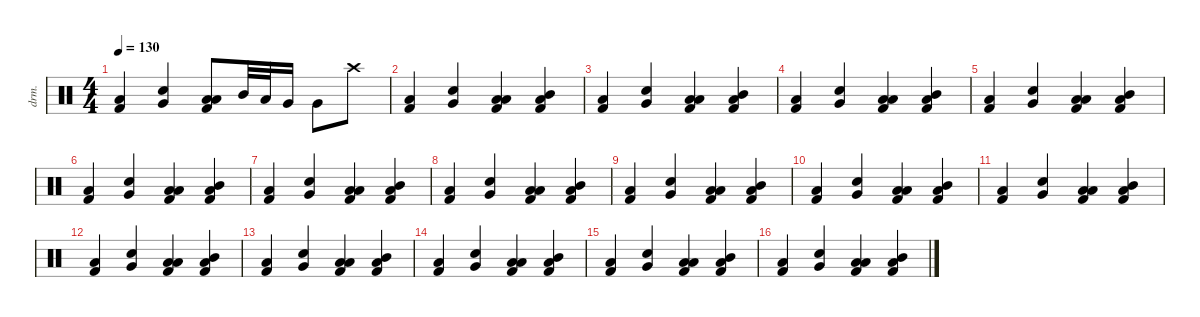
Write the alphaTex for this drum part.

\defaultSystemsLayout 4
\hideDynamics
\bracketExtendMode nobrackets
\otherSystemsTrackNameOrientation horizontal
\track ("Percussion" "drm.") {instrument percussion}
\staff {score}
\articulation defaults
\ts (4 4)
\tempo 130
\clef neutral
\ks c
("Kick (hit) 2" "Low Floor Tom (hit)").4{dy f} ("Very Low Tom (hit)" "Snare (hit) 2").4 ("Low Floor Tom (hit)" "Kick (hit) 2" "Low Tom (hit)").8 "Mid Tom (hit)".32 "Low Tom (hit)".32 "Very Low Tom (hit)".16 "Very Low Tom (hit)".8 "Crash high (hit)".8 |
("Kick (hit) 2" "Low Floor Tom (hit)").4 ("Very Low Tom (hit)" "Snare (hit) 2").4 ("Low Floor Tom (hit)" "Kick (hit) 2" "Low Tom (hit)").4 ("Low Tom (hit)" "Kick (hit) 2" "Mid Tom (hit)").4 |
("Kick (hit) 2" "Low Floor Tom (hit)").4 ("Very Low Tom (hit)" "Snare (hit) 2").4 ("Low Floor Tom (hit)" "Kick (hit) 2" "Low Tom (hit)").4 ("Low Tom (hit)" "Kick (hit) 2" "Mid Tom (hit)").4 |
("Kick (hit) 2" "Low Floor Tom (hit)").4 ("Very Low Tom (hit)" "Snare (hit) 2").4 ("Low Floor Tom (hit)" "Kick (hit) 2" "Low Tom (hit)").4 ("Low Tom (hit)" "Kick (hit) 2" "Mid Tom (hit)").4 |
("Kick (hit) 2" "Low Floor Tom (hit)").4 ("Very Low Tom (hit)" "Snare (hit) 2").4 ("Low Floor Tom (hit)" "Kick (hit) 2" "Low Tom (hit)").4 ("Low Tom (hit)" "Kick (hit) 2" "Mid Tom (hit)").4 |
("Kick (hit) 2" "Low Floor Tom (hit)").4 ("Very Low Tom (hit)" "Snare (hit) 2").4 ("Low Floor Tom (hit)" "Kick (hit) 2" "Low Tom (hit)").4 ("Low Tom (hit)" "Kick (hit) 2" "Mid Tom (hit)").4 |
("Kick (hit) 2" "Low Floor Tom (hit)").4 ("Very Low Tom (hit)" "Snare (hit) 2").4 ("Low Floor Tom (hit)" "Kick (hit) 2" "Low Tom (hit)").4 ("Low Tom (hit)" "Kick (hit) 2" "Mid Tom (hit)").4 |
("Kick (hit) 2" "Low Floor Tom (hit)").4 ("Very Low Tom (hit)" "Snare (hit) 2").4 ("Low Floor Tom (hit)" "Kick (hit) 2" "Low Tom (hit)").4 ("Low Tom (hit)" "Kick (hit) 2" "Mid Tom (hit)").4 |
("Kick (hit) 2" "Low Floor Tom (hit)").4 ("Very Low Tom (hit)" "Snare (hit) 2").4 ("Low Floor Tom (hit)" "Kick (hit) 2" "Low Tom (hit)").4 ("Low Tom (hit)" "Kick (hit) 2" "Mid Tom (hit)").4 |
("Kick (hit) 2" "Low Floor Tom (hit)").4 ("Very Low Tom (hit)" "Snare (hit) 2").4 ("Low Floor Tom (hit)" "Kick (hit) 2" "Low Tom (hit)").4 ("Low Tom (hit)" "Kick (hit) 2" "Mid Tom (hit)").4 |
("Kick (hit) 2" "Low Floor Tom (hit)").4 ("Very Low Tom (hit)" "Snare (hit) 2").4 ("Low Floor Tom (hit)" "Kick (hit) 2" "Low Tom (hit)").4 ("Low Tom (hit)" "Kick (hit) 2" "Mid Tom (hit)").4 |
("Kick (hit) 2" "Low Floor Tom (hit)").4 ("Very Low Tom (hit)" "Snare (hit) 2").4 ("Low Floor Tom (hit)" "Kick (hit) 2" "Low Tom (hit)").4 ("Low Tom (hit)" "Kick (hit) 2" "Mid Tom (hit)").4 |
("Kick (hit) 2" "Low Floor Tom (hit)").4 ("Very Low Tom (hit)" "Snare (hit) 2").4 ("Low Floor Tom (hit)" "Kick (hit) 2" "Low Tom (hit)").4 ("Low Tom (hit)" "Kick (hit) 2" "Mid Tom (hit)").4 |
("Kick (hit) 2" "Low Floor Tom (hit)").4 ("Very Low Tom (hit)" "Snare (hit) 2").4 ("Low Floor Tom (hit)" "Kick (hit) 2" "Low Tom (hit)").4 ("Low Tom (hit)" "Kick (hit) 2" "Mid Tom (hit)").4 |
("Kick (hit) 2" "Low Floor Tom (hit)").4 ("Very Low Tom (hit)" "Snare (hit) 2").4 ("Low Floor Tom (hit)" "Kick (hit) 2" "Low Tom (hit)").4 ("Low Tom (hit)" "Kick (hit) 2" "Mid Tom (hit)").4 |
("Kick (hit) 2" "Low Floor Tom (hit)").4 ("Very Low Tom (hit)" "Snare (hit) 2").4 ("Low Floor Tom (hit)" "Kick (hit) 2" "Low Tom (hit)").4 ("Low Tom (hit)" "Kick (hit) 2" "Mid Tom (hit)").4
